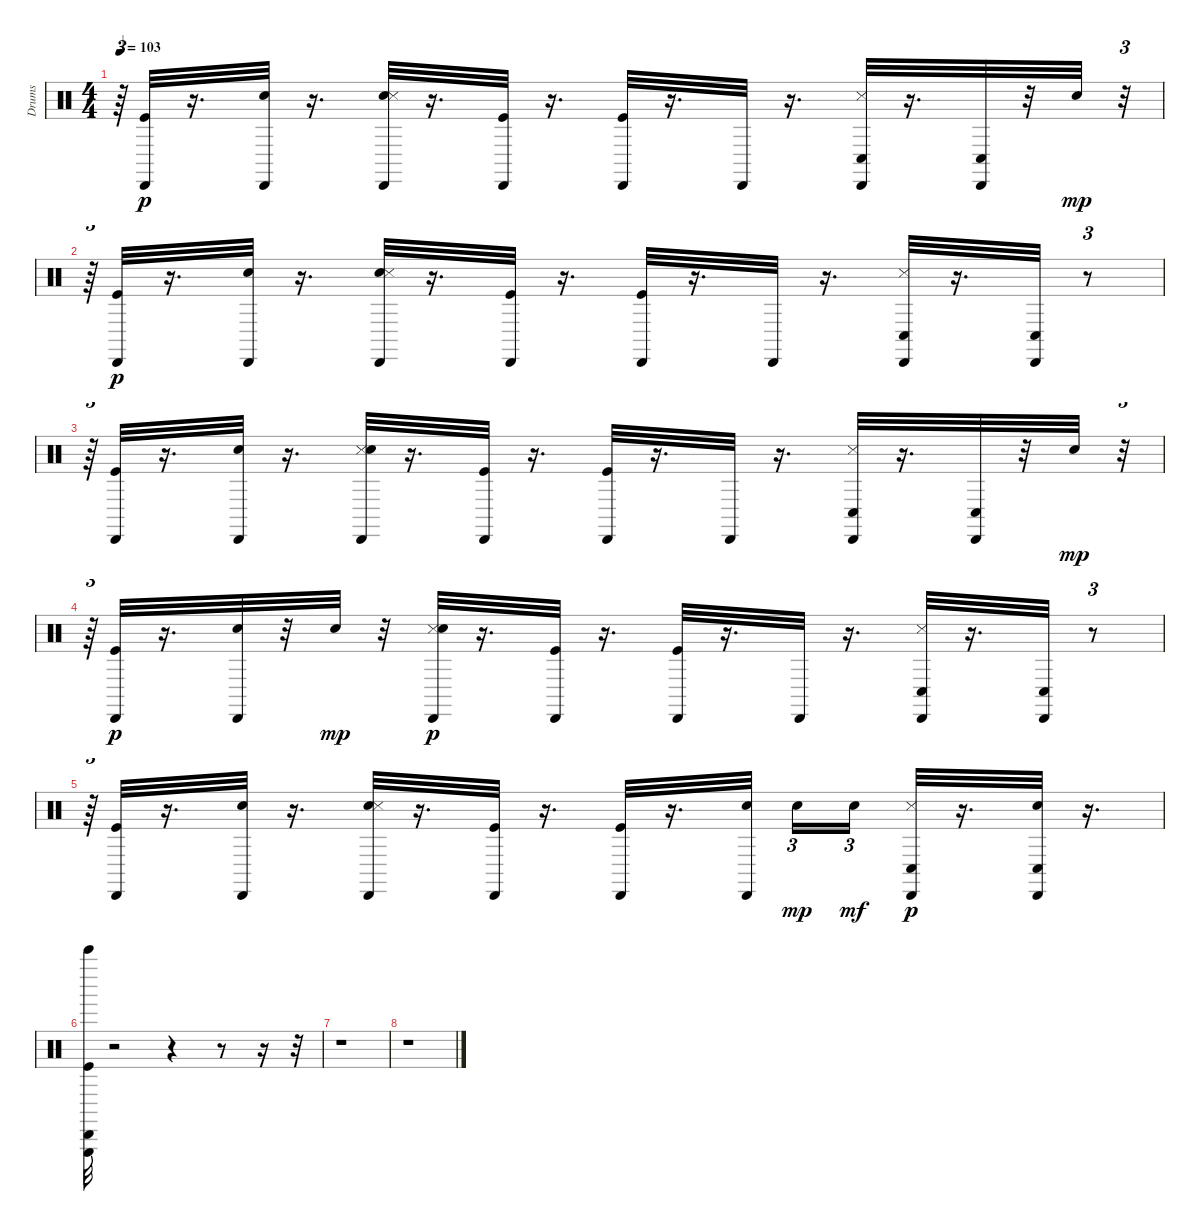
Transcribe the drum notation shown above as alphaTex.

\track ("Drums" "Drums") {instrument percussion}
\staff {score}
\articulation defaults
\ts (4 4)
\tempo 103
\clef neutral
\ks c
r.64{tu (3 2) dy p} ("Kick (hit)" "Cabasa (hit)").32 r.16{d} ("Snare (hit) 2" "Cabasa (hit)").32 r.16{d} ("Snare (hit) 2" "Snare (side stick) 3" "Cabasa (hit)").32 r.16{d} ("Kick (hit)" "Cabasa (hit)").32 r.16{d} ("Kick (hit)" "Cabasa (hit)").32 r.16{d} "Cabasa (hit)".32 r.16{d} ("Snare (side stick) 3" "Conga low (hit)" "Cabasa (hit)").32 r.16{d} ("Conga low (hit)" "Cabasa (hit)").32 r.32 "Snare (hit) 2".32{dy mp} r.32{tu (3 2)} |
r.64{tu (3 2)} ("Kick (hit)" "Cabasa (hit)").32{dy p} r.16{d} ("Snare (hit) 2" "Cabasa (hit)").32 r.16{d} ("Snare (hit) 2" "Snare (side stick) 3" "Cabasa (hit)").32 r.16{d} ("Kick (hit)" "Cabasa (hit)").32 r.16{d} ("Kick (hit)" "Cabasa (hit)").32 r.16{d} "Cabasa (hit)".32 r.16{d} ("Snare (side stick) 3" "Conga low (hit)" "Cabasa (hit)").32 r.16{d} ("Conga low (hit)" "Cabasa (hit)").32 r.8{tu (3 2)} |
r.64{tu (3 2)} ("Kick (hit)" "Cabasa (hit)").32 r.16{d} ("Snare (hit) 2" "Cabasa (hit)").32 r.16{d} ("Snare (side stick) 3" "Snare (hit) 2" "Cabasa (hit)").32 r.16{d} ("Kick (hit)" "Cabasa (hit)").32 r.16{d} ("Kick (hit)" "Cabasa (hit)").32 r.16{d} "Cabasa (hit)".32 r.16{d} ("Snare (side stick) 3" "Conga low (hit)" "Cabasa (hit)").32 r.16{d} ("Conga low (hit)" "Cabasa (hit)").32 r.32 "Snare (hit) 2".32{dy mp} r.32{tu (3 2)} |
r.64{tu (3 2)} ("Kick (hit)" "Cabasa (hit)").32{dy p} r.16{d} ("Snare (hit) 2" "Cabasa (hit)").32 r.32 "Snare (hit) 2".32{dy mp} r.32 ("Snare (side stick) 3" "Snare (hit) 2" "Cabasa (hit)").32{dy p} r.16{d} ("Kick (hit)" "Cabasa (hit)").32 r.16{d} ("Kick (hit)" "Cabasa (hit)").32 r.16{d} "Cabasa (hit)".32 r.16{d} ("Conga low (hit)" "Snare (side stick) 3" "Cabasa (hit)").32 r.16{d} ("Conga low (hit)" "Cabasa (hit)").32 r.8{tu (3 2)} |
r.64{tu (3 2)} ("Kick (hit)" "Cabasa (hit)").32 r.16{d} ("Snare (hit) 2" "Cabasa (hit)").32 r.16{d} ("Snare (hit) 2" "Snare (side stick) 3" "Cabasa (hit)").32 r.16{d} ("Kick (hit)" "Cabasa (hit)").32 r.16{d} ("Kick (hit)" "Cabasa (hit)").32 r.16{d} ("Snare (hit) 2" "Cabasa (hit)").32 "Snare (hit) 2".16{tu (3 2) dy mp} "Snare (hit) 2".16{tu (3 2) dy mf} ("Snare (side stick) 3" "Conga low (hit)" "Cabasa (hit)").32{dy p} r.16{d} ("Conga low (hit)" "Snare (hit) 2" "Cabasa (hit)").32 r.16{d} |
("Triangle (hit)" "Bell Tree (hit)" "Kick (hit)" "Cabasa (hit)").32 r.2 r.4 r.8 r.16 r.32 |
r.1 |
r.1
